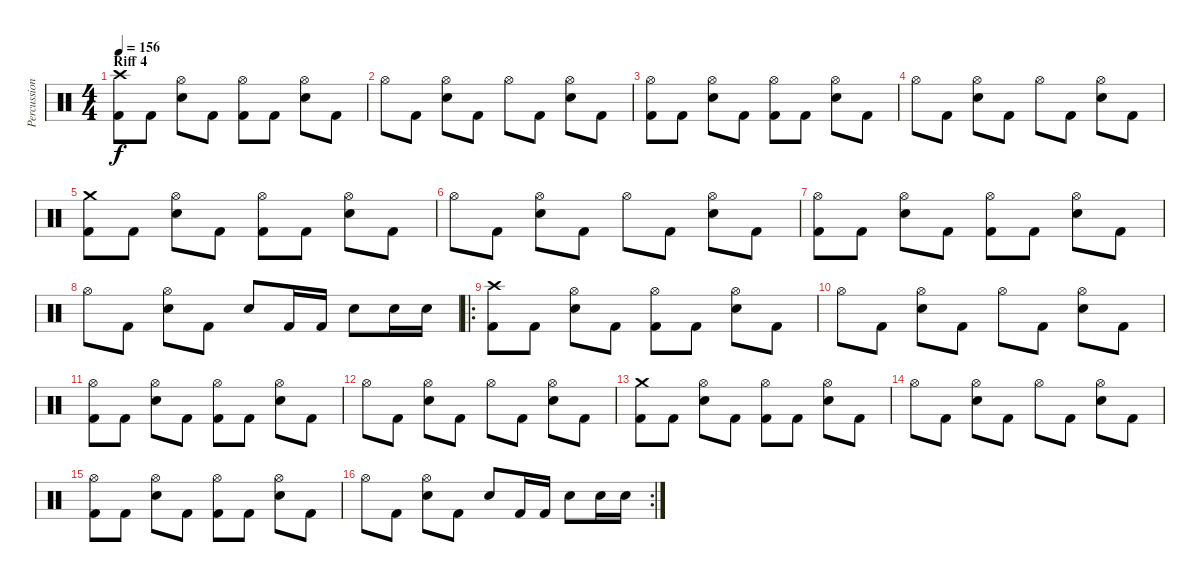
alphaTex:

\track ("Percussion" "Percussion") {instrument percussion}
\staff {score}
\articulation defaults
\ts (4 4)
\section ("" "Riff 4")
\tempo 156
\clef neutral
\ks c
("Crash high (hit)" "Kick (hit) 2").8{dy f} "Kick (hit) 2".8 ("Hi-Hat (open)" "Snare (hit) 2").8 "Kick (hit) 2".8 ("Hi-Hat (open)" "Kick (hit) 2").8 "Kick (hit) 2".8 ("Hi-Hat (open)" "Snare (hit) 2").8 "Kick (hit) 2".8 |
"Hi-Hat (open)".8 "Kick (hit) 2".8 ("Hi-Hat (open)" "Snare (hit) 2").8 "Kick (hit) 2".8 "Hi-Hat (open)".8 "Kick (hit) 2".8 ("Hi-Hat (open)" "Snare (hit) 2").8 "Kick (hit) 2".8 |
("Hi-Hat (open)" "Kick (hit) 2").8 "Kick (hit) 2".8 ("Hi-Hat (open)" "Snare (hit) 2").8 "Kick (hit) 2".8 ("Hi-Hat (open)" "Kick (hit) 2").8 "Kick (hit) 2".8 ("Hi-Hat (open)" "Snare (hit) 2").8 "Kick (hit) 2".8 |
"Hi-Hat (open)".8 "Kick (hit) 2".8 ("Hi-Hat (open)" "Snare (hit) 2").8 "Kick (hit) 2".8 "Hi-Hat (open)".8 "Kick (hit) 2".8 ("Hi-Hat (open)" "Snare (hit) 2").8 "Kick (hit) 2".8 |
("Crash medium (hit)" "Kick (hit) 2").8 "Kick (hit) 2".8 ("Hi-Hat (open)" "Snare (hit) 2").8 "Kick (hit) 2".8 ("Hi-Hat (open)" "Kick (hit) 2").8 "Kick (hit) 2".8 ("Hi-Hat (open)" "Snare (hit) 2").8 "Kick (hit) 2".8 |
"Hi-Hat (open)".8 "Kick (hit) 2".8 ("Hi-Hat (open)" "Snare (hit) 2").8 "Kick (hit) 2".8 "Hi-Hat (open)".8 "Kick (hit) 2".8 ("Hi-Hat (open)" "Snare (hit) 2").8 "Kick (hit) 2".8 |
("Hi-Hat (open)" "Kick (hit) 2").8 "Kick (hit) 2".8 ("Hi-Hat (open)" "Snare (hit) 2").8 "Kick (hit) 2".8 ("Hi-Hat (open)" "Kick (hit) 2").8 "Kick (hit) 2".8 ("Hi-Hat (open)" "Snare (hit) 2").8 "Kick (hit) 2".8 |
"Hi-Hat (open)".8 "Kick (hit) 2".8 ("Hi-Hat (open)" "Snare (hit) 2").8 "Kick (hit) 2".8 "Snare (hit) 2".8 "Kick (hit) 2".16 "Kick (hit) 2".16 "Snare (hit) 2".8 "Snare (hit) 2".16 "Snare (hit) 2".16 |
\ro
("Crash high (hit)" "Kick (hit) 2").8 "Kick (hit) 2".8 ("Hi-Hat (open)" "Snare (hit) 2").8 "Kick (hit) 2".8 ("Hi-Hat (open)" "Kick (hit) 2").8 "Kick (hit) 2".8 ("Hi-Hat (open)" "Snare (hit) 2").8 "Kick (hit) 2".8 |
"Hi-Hat (open)".8 "Kick (hit) 2".8 ("Hi-Hat (open)" "Snare (hit) 2").8 "Kick (hit) 2".8 "Hi-Hat (open)".8 "Kick (hit) 2".8 ("Hi-Hat (open)" "Snare (hit) 2").8 "Kick (hit) 2".8 |
("Hi-Hat (open)" "Kick (hit) 2").8 "Kick (hit) 2".8 ("Hi-Hat (open)" "Snare (hit) 2").8 "Kick (hit) 2".8 ("Hi-Hat (open)" "Kick (hit) 2").8 "Kick (hit) 2".8 ("Hi-Hat (open)" "Snare (hit) 2").8 "Kick (hit) 2".8 |
"Hi-Hat (open)".8 "Kick (hit) 2".8 ("Hi-Hat (open)" "Snare (hit) 2").8 "Kick (hit) 2".8 "Hi-Hat (open)".8 "Kick (hit) 2".8 ("Hi-Hat (open)" "Snare (hit) 2").8 "Kick (hit) 2".8 |
("Crash medium (hit)" "Kick (hit) 2").8 "Kick (hit) 2".8 ("Hi-Hat (open)" "Snare (hit) 2").8 "Kick (hit) 2".8 ("Hi-Hat (open)" "Kick (hit) 2").8 "Kick (hit) 2".8 ("Hi-Hat (open)" "Snare (hit) 2").8 "Kick (hit) 2".8 |
"Hi-Hat (open)".8 "Kick (hit) 2".8 ("Hi-Hat (open)" "Snare (hit) 2").8 "Kick (hit) 2".8 "Hi-Hat (open)".8 "Kick (hit) 2".8 ("Hi-Hat (open)" "Snare (hit) 2").8 "Kick (hit) 2".8 |
("Hi-Hat (open)" "Kick (hit) 2").8 "Kick (hit) 2".8 ("Hi-Hat (open)" "Snare (hit) 2").8 "Kick (hit) 2".8 ("Hi-Hat (open)" "Kick (hit) 2").8 "Kick (hit) 2".8 ("Hi-Hat (open)" "Snare (hit) 2").8 "Kick (hit) 2".8 |
\rc 2 "Hi-Hat (open)".8 "Kick (hit) 2".8
("Hi-Hat (open)" "Snare (hit) 2").8 "Kick (hit) 2".8 "Snare (hit) 2".8 "Kick (hit) 2".16 "Kick (hit) 2".16 "Snare (hit) 2".8 "Snare (hit) 2".16 "Snare (hit) 2".16
